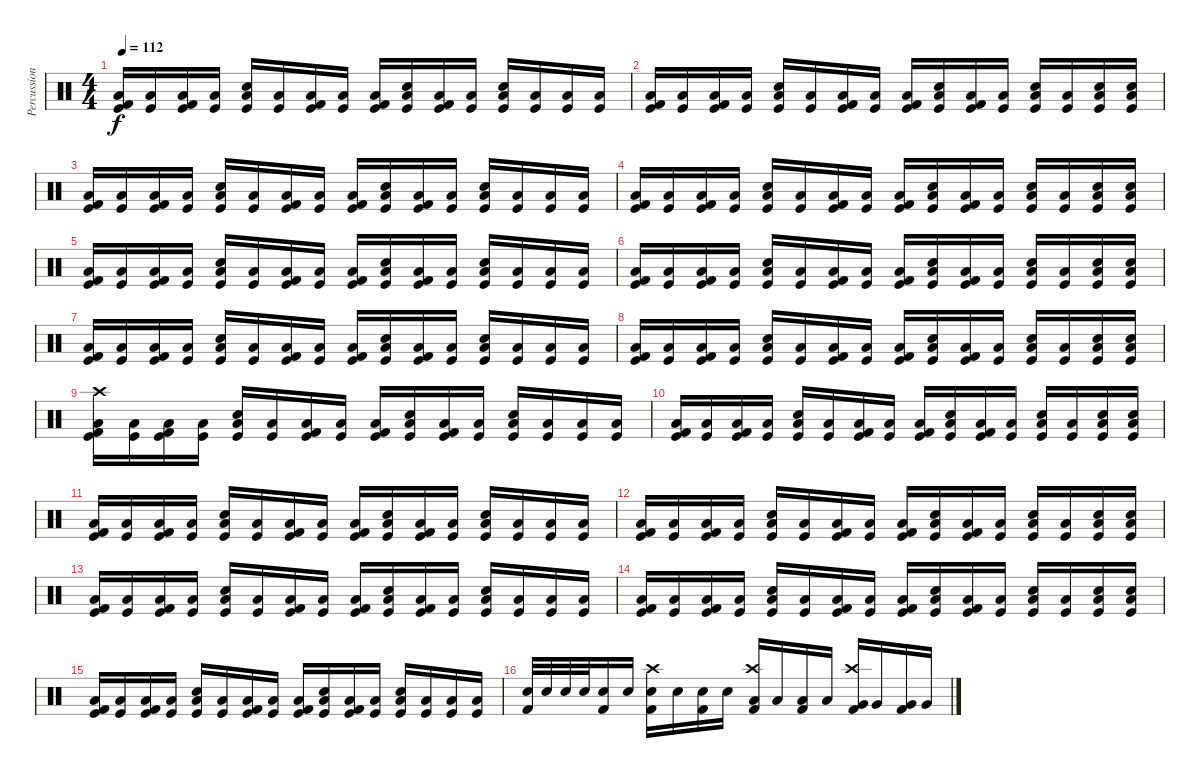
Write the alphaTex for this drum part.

\track ("Percussion" "Percussion") {instrument percussion}
\staff {score}
\articulation defaults
\ts (4 4)
\tempo 112
\clef neutral
\ks c
("Kick (hit) 2" "Kick (hit)" "Low Floor Tom (hit)").16{dy f} ("Kick (hit)" "Low Floor Tom (hit)").16 ("Kick (hit) 2" "Kick (hit)" "Low Floor Tom (hit)").16 ("Kick (hit)" "Low Floor Tom (hit)").16 ("Snare (hit) 2" "Kick (hit)" "Low Floor Tom (hit)").16 ("Kick (hit)" "Low Floor Tom (hit)").16 ("Kick (hit) 2" "Kick (hit)" "Low Floor Tom (hit)").16 ("Kick (hit)" "Low Floor Tom (hit)").16 ("Kick (hit) 2" "Kick (hit)" "Low Floor Tom (hit)").16 ("Snare (hit) 2" "Kick (hit)" "Low Floor Tom (hit)").16 ("Kick (hit) 2" "Kick (hit)" "Low Floor Tom (hit)").16 ("Kick (hit)" "Low Floor Tom (hit)").16 ("Snare (hit) 2" "Kick (hit)" "Low Floor Tom (hit)").16 ("Kick (hit)" "Low Floor Tom (hit)").16 ("Kick (hit)" "Low Floor Tom (hit)").16 ("Kick (hit)" "Low Floor Tom (hit)").16 |
("Kick (hit) 2" "Kick (hit)" "Low Floor Tom (hit)").16 ("Kick (hit)" "Low Floor Tom (hit)").16 ("Kick (hit) 2" "Kick (hit)" "Low Floor Tom (hit)").16 ("Kick (hit)" "Low Floor Tom (hit)").16 ("Snare (hit) 2" "Kick (hit)" "Low Floor Tom (hit)").16 ("Kick (hit)" "Low Floor Tom (hit)").16 ("Kick (hit) 2" "Kick (hit)" "Low Floor Tom (hit)").16 ("Kick (hit)" "Low Floor Tom (hit)").16 ("Kick (hit) 2" "Kick (hit)" "Low Floor Tom (hit)").16 ("Snare (hit) 2" "Kick (hit)" "Low Floor Tom (hit)").16 ("Kick (hit) 2" "Kick (hit)" "Low Floor Tom (hit)").16 ("Kick (hit)" "Low Floor Tom (hit)").16 ("Snare (hit) 2" "Kick (hit)" "Low Floor Tom (hit)").16 ("Kick (hit)" "Low Floor Tom (hit)").16 ("Snare (hit) 2" "Kick (hit)" "Low Floor Tom (hit)").16 ("Snare (hit) 2" "Kick (hit)" "Low Floor Tom (hit)").16 |
("Kick (hit) 2" "Kick (hit)" "Low Floor Tom (hit)").16 ("Kick (hit)" "Low Floor Tom (hit)").16 ("Kick (hit) 2" "Kick (hit)" "Low Floor Tom (hit)").16 ("Kick (hit)" "Low Floor Tom (hit)").16 ("Snare (hit) 2" "Kick (hit)" "Low Floor Tom (hit)").16 ("Kick (hit)" "Low Floor Tom (hit)").16 ("Kick (hit) 2" "Kick (hit)" "Low Floor Tom (hit)").16 ("Kick (hit)" "Low Floor Tom (hit)").16 ("Kick (hit) 2" "Kick (hit)" "Low Floor Tom (hit)").16 ("Snare (hit) 2" "Kick (hit)" "Low Floor Tom (hit)").16 ("Kick (hit) 2" "Kick (hit)" "Low Floor Tom (hit)").16 ("Kick (hit)" "Low Floor Tom (hit)").16 ("Snare (hit) 2" "Kick (hit)" "Low Floor Tom (hit)").16 ("Kick (hit)" "Low Floor Tom (hit)").16 ("Kick (hit)" "Low Floor Tom (hit)").16 ("Kick (hit)" "Low Floor Tom (hit)").16 |
("Kick (hit) 2" "Kick (hit)" "Low Floor Tom (hit)").16 ("Kick (hit)" "Low Floor Tom (hit)").16 ("Kick (hit) 2" "Kick (hit)" "Low Floor Tom (hit)").16 ("Kick (hit)" "Low Floor Tom (hit)").16 ("Snare (hit) 2" "Kick (hit)" "Low Floor Tom (hit)").16 ("Kick (hit)" "Low Floor Tom (hit)").16 ("Kick (hit) 2" "Kick (hit)" "Low Floor Tom (hit)").16 ("Kick (hit)" "Low Floor Tom (hit)").16 ("Kick (hit) 2" "Kick (hit)" "Low Floor Tom (hit)").16 ("Snare (hit) 2" "Kick (hit)" "Low Floor Tom (hit)").16 ("Kick (hit) 2" "Kick (hit)" "Low Floor Tom (hit)").16 ("Kick (hit)" "Low Floor Tom (hit)").16 ("Snare (hit) 2" "Kick (hit)" "Low Floor Tom (hit)").16 ("Kick (hit)" "Low Floor Tom (hit)").16 ("Snare (hit) 2" "Kick (hit)" "Low Floor Tom (hit)").16 ("Snare (hit) 2" "Kick (hit)" "Low Floor Tom (hit)").16 |
("Kick (hit) 2" "Kick (hit)" "Low Floor Tom (hit)").16 ("Kick (hit)" "Low Floor Tom (hit)").16 ("Kick (hit) 2" "Kick (hit)" "Low Floor Tom (hit)").16 ("Kick (hit)" "Low Floor Tom (hit)").16 ("Snare (hit) 2" "Kick (hit)" "Low Floor Tom (hit)").16 ("Kick (hit)" "Low Floor Tom (hit)").16 ("Kick (hit) 2" "Kick (hit)" "Low Floor Tom (hit)").16 ("Kick (hit)" "Low Floor Tom (hit)").16 ("Kick (hit) 2" "Kick (hit)" "Low Floor Tom (hit)").16 ("Snare (hit) 2" "Kick (hit)" "Low Floor Tom (hit)").16 ("Kick (hit) 2" "Kick (hit)" "Low Floor Tom (hit)").16 ("Kick (hit)" "Low Floor Tom (hit)").16 ("Snare (hit) 2" "Kick (hit)" "Low Floor Tom (hit)").16 ("Kick (hit)" "Low Floor Tom (hit)").16 ("Kick (hit)" "Low Floor Tom (hit)").16 ("Kick (hit)" "Low Floor Tom (hit)").16 |
("Kick (hit) 2" "Kick (hit)" "Low Floor Tom (hit)").16 ("Kick (hit)" "Low Floor Tom (hit)").16 ("Kick (hit) 2" "Kick (hit)" "Low Floor Tom (hit)").16 ("Kick (hit)" "Low Floor Tom (hit)").16 ("Snare (hit) 2" "Kick (hit)" "Low Floor Tom (hit)").16 ("Kick (hit)" "Low Floor Tom (hit)").16 ("Kick (hit) 2" "Kick (hit)" "Low Floor Tom (hit)").16 ("Kick (hit)" "Low Floor Tom (hit)").16 ("Kick (hit) 2" "Kick (hit)" "Low Floor Tom (hit)").16 ("Snare (hit) 2" "Kick (hit)" "Low Floor Tom (hit)").16 ("Kick (hit) 2" "Kick (hit)" "Low Floor Tom (hit)").16 ("Kick (hit)" "Low Floor Tom (hit)").16 ("Snare (hit) 2" "Kick (hit)" "Low Floor Tom (hit)").16 ("Kick (hit)" "Low Floor Tom (hit)").16 ("Snare (hit) 2" "Kick (hit)" "Low Floor Tom (hit)").16 ("Snare (hit) 2" "Kick (hit)" "Low Floor Tom (hit)").16 |
("Kick (hit) 2" "Kick (hit)" "Low Floor Tom (hit)").16 ("Kick (hit)" "Low Floor Tom (hit)").16 ("Kick (hit) 2" "Kick (hit)" "Low Floor Tom (hit)").16 ("Kick (hit)" "Low Floor Tom (hit)").16 ("Snare (hit) 2" "Kick (hit)" "Low Floor Tom (hit)").16 ("Kick (hit)" "Low Floor Tom (hit)").16 ("Kick (hit) 2" "Kick (hit)" "Low Floor Tom (hit)").16 ("Kick (hit)" "Low Floor Tom (hit)").16 ("Kick (hit) 2" "Kick (hit)" "Low Floor Tom (hit)").16 ("Snare (hit) 2" "Kick (hit)" "Low Floor Tom (hit)").16 ("Kick (hit) 2" "Kick (hit)" "Low Floor Tom (hit)").16 ("Kick (hit)" "Low Floor Tom (hit)").16 ("Snare (hit) 2" "Kick (hit)" "Low Floor Tom (hit)").16 ("Kick (hit)" "Low Floor Tom (hit)").16 ("Kick (hit)" "Low Floor Tom (hit)").16 ("Kick (hit)" "Low Floor Tom (hit)").16 |
("Kick (hit) 2" "Kick (hit)" "Low Floor Tom (hit)").16 ("Kick (hit)" "Low Floor Tom (hit)").16 ("Kick (hit) 2" "Kick (hit)" "Low Floor Tom (hit)").16 ("Kick (hit)" "Low Floor Tom (hit)").16 ("Snare (hit) 2" "Kick (hit)" "Low Floor Tom (hit)").16 ("Kick (hit)" "Low Floor Tom (hit)").16 ("Kick (hit) 2" "Kick (hit)" "Low Floor Tom (hit)").16 ("Kick (hit)" "Low Floor Tom (hit)").16 ("Kick (hit) 2" "Kick (hit)" "Low Floor Tom (hit)").16 ("Snare (hit) 2" "Kick (hit)" "Low Floor Tom (hit)").16 ("Kick (hit) 2" "Kick (hit)" "Low Floor Tom (hit)").16 ("Kick (hit)" "Low Floor Tom (hit)").16 ("Snare (hit) 2" "Kick (hit)" "Low Floor Tom (hit)").16 ("Kick (hit)" "Low Floor Tom (hit)").16 ("Snare (hit) 2" "Kick (hit)" "Low Floor Tom (hit)").16 ("Snare (hit) 2" "Kick (hit)" "Low Floor Tom (hit)").16 |
("Kick (hit) 2" "Kick (hit)" "Low Floor Tom (hit)" "Crash high (hit)").16 ("Kick (hit)" "Low Floor Tom (hit)").16 ("Kick (hit) 2" "Kick (hit)" "Low Floor Tom (hit)").16 ("Kick (hit)" "Low Floor Tom (hit)").16 ("Snare (hit) 2" "Kick (hit)" "Low Floor Tom (hit)").16 ("Kick (hit)" "Low Floor Tom (hit)").16 ("Kick (hit) 2" "Kick (hit)" "Low Floor Tom (hit)").16 ("Kick (hit)" "Low Floor Tom (hit)").16 ("Kick (hit) 2" "Kick (hit)" "Low Floor Tom (hit)").16 ("Snare (hit) 2" "Kick (hit)" "Low Floor Tom (hit)").16 ("Kick (hit) 2" "Kick (hit)" "Low Floor Tom (hit)").16 ("Kick (hit)" "Low Floor Tom (hit)").16 ("Snare (hit) 2" "Kick (hit)" "Low Floor Tom (hit)").16 ("Kick (hit)" "Low Floor Tom (hit)").16 ("Kick (hit)" "Low Floor Tom (hit)").16 ("Kick (hit)" "Low Floor Tom (hit)").16 |
("Kick (hit) 2" "Kick (hit)" "Low Floor Tom (hit)").16 ("Kick (hit)" "Low Floor Tom (hit)").16 ("Kick (hit) 2" "Kick (hit)" "Low Floor Tom (hit)").16 ("Kick (hit)" "Low Floor Tom (hit)").16 ("Snare (hit) 2" "Kick (hit)" "Low Floor Tom (hit)").16 ("Kick (hit)" "Low Floor Tom (hit)").16 ("Kick (hit) 2" "Kick (hit)" "Low Floor Tom (hit)").16 ("Kick (hit)" "Low Floor Tom (hit)").16 ("Kick (hit) 2" "Kick (hit)" "Low Floor Tom (hit)").16 ("Snare (hit) 2" "Kick (hit)" "Low Floor Tom (hit)").16 ("Kick (hit) 2" "Kick (hit)" "Low Floor Tom (hit)").16 ("Kick (hit)" "Low Floor Tom (hit)").16 ("Snare (hit) 2" "Kick (hit)" "Low Floor Tom (hit)").16 ("Kick (hit)" "Low Floor Tom (hit)").16 ("Snare (hit) 2" "Kick (hit)" "Low Floor Tom (hit)").16 ("Snare (hit) 2" "Kick (hit)" "Low Floor Tom (hit)").16 |
("Kick (hit) 2" "Kick (hit)" "Low Floor Tom (hit)").16 ("Kick (hit)" "Low Floor Tom (hit)").16 ("Kick (hit) 2" "Kick (hit)" "Low Floor Tom (hit)").16 ("Kick (hit)" "Low Floor Tom (hit)").16 ("Snare (hit) 2" "Kick (hit)" "Low Floor Tom (hit)").16 ("Kick (hit)" "Low Floor Tom (hit)").16 ("Kick (hit) 2" "Kick (hit)" "Low Floor Tom (hit)").16 ("Kick (hit)" "Low Floor Tom (hit)").16 ("Kick (hit) 2" "Kick (hit)" "Low Floor Tom (hit)").16 ("Snare (hit) 2" "Kick (hit)" "Low Floor Tom (hit)").16 ("Kick (hit) 2" "Kick (hit)" "Low Floor Tom (hit)").16 ("Kick (hit)" "Low Floor Tom (hit)").16 ("Snare (hit) 2" "Kick (hit)" "Low Floor Tom (hit)").16 ("Kick (hit)" "Low Floor Tom (hit)").16 ("Kick (hit)" "Low Floor Tom (hit)").16 ("Kick (hit)" "Low Floor Tom (hit)").16 |
("Kick (hit) 2" "Kick (hit)" "Low Floor Tom (hit)").16 ("Kick (hit)" "Low Floor Tom (hit)").16 ("Kick (hit) 2" "Kick (hit)" "Low Floor Tom (hit)").16 ("Kick (hit)" "Low Floor Tom (hit)").16 ("Snare (hit) 2" "Kick (hit)" "Low Floor Tom (hit)").16 ("Kick (hit)" "Low Floor Tom (hit)").16 ("Kick (hit) 2" "Kick (hit)" "Low Floor Tom (hit)").16 ("Kick (hit)" "Low Floor Tom (hit)").16 ("Kick (hit) 2" "Kick (hit)" "Low Floor Tom (hit)").16 ("Snare (hit) 2" "Kick (hit)" "Low Floor Tom (hit)").16 ("Kick (hit) 2" "Kick (hit)" "Low Floor Tom (hit)").16 ("Kick (hit)" "Low Floor Tom (hit)").16 ("Snare (hit) 2" "Kick (hit)" "Low Floor Tom (hit)").16 ("Kick (hit)" "Low Floor Tom (hit)").16 ("Snare (hit) 2" "Kick (hit)" "Low Floor Tom (hit)").16 ("Snare (hit) 2" "Kick (hit)" "Low Floor Tom (hit)").16 |
("Kick (hit) 2" "Kick (hit)" "Low Floor Tom (hit)").16 ("Kick (hit)" "Low Floor Tom (hit)").16 ("Kick (hit) 2" "Kick (hit)" "Low Floor Tom (hit)").16 ("Kick (hit)" "Low Floor Tom (hit)").16 ("Snare (hit) 2" "Kick (hit)" "Low Floor Tom (hit)").16 ("Kick (hit)" "Low Floor Tom (hit)").16 ("Kick (hit) 2" "Kick (hit)" "Low Floor Tom (hit)").16 ("Kick (hit)" "Low Floor Tom (hit)").16 ("Kick (hit) 2" "Kick (hit)" "Low Floor Tom (hit)").16 ("Snare (hit) 2" "Kick (hit)" "Low Floor Tom (hit)").16 ("Kick (hit) 2" "Kick (hit)" "Low Floor Tom (hit)").16 ("Kick (hit)" "Low Floor Tom (hit)").16 ("Snare (hit) 2" "Kick (hit)" "Low Floor Tom (hit)").16 ("Kick (hit)" "Low Floor Tom (hit)").16 ("Kick (hit)" "Low Floor Tom (hit)").16 ("Kick (hit)" "Low Floor Tom (hit)").16 |
("Kick (hit) 2" "Kick (hit)" "Low Floor Tom (hit)").16 ("Kick (hit)" "Low Floor Tom (hit)").16 ("Kick (hit) 2" "Kick (hit)" "Low Floor Tom (hit)").16 ("Kick (hit)" "Low Floor Tom (hit)").16 ("Snare (hit) 2" "Kick (hit)" "Low Floor Tom (hit)").16 ("Kick (hit)" "Low Floor Tom (hit)").16 ("Kick (hit) 2" "Kick (hit)" "Low Floor Tom (hit)").16 ("Kick (hit)" "Low Floor Tom (hit)").16 ("Kick (hit) 2" "Kick (hit)" "Low Floor Tom (hit)").16 ("Snare (hit) 2" "Kick (hit)" "Low Floor Tom (hit)").16 ("Kick (hit) 2" "Kick (hit)" "Low Floor Tom (hit)").16 ("Kick (hit)" "Low Floor Tom (hit)").16 ("Snare (hit) 2" "Kick (hit)" "Low Floor Tom (hit)").16 ("Kick (hit)" "Low Floor Tom (hit)").16 ("Snare (hit) 2" "Kick (hit)" "Low Floor Tom (hit)").16 ("Snare (hit) 2" "Kick (hit)" "Low Floor Tom (hit)").16 |
("Kick (hit) 2" "Kick (hit)" "Low Floor Tom (hit)").16 ("Kick (hit)" "Low Floor Tom (hit)").16 ("Kick (hit) 2" "Kick (hit)" "Low Floor Tom (hit)").16 ("Kick (hit)" "Low Floor Tom (hit)").16 ("Snare (hit) 2" "Kick (hit)" "Low Floor Tom (hit)").16 ("Kick (hit)" "Low Floor Tom (hit)").16 ("Kick (hit) 2" "Kick (hit)" "Low Floor Tom (hit)").16 ("Kick (hit)" "Low Floor Tom (hit)").16 ("Kick (hit) 2" "Kick (hit)" "Low Floor Tom (hit)").16 ("Snare (hit) 2" "Kick (hit)" "Low Floor Tom (hit)").16 ("Kick (hit) 2" "Kick (hit)" "Low Floor Tom (hit)").16 ("Kick (hit)" "Low Floor Tom (hit)").16 ("Snare (hit) 2" "Kick (hit)" "Low Floor Tom (hit)").16 ("Kick (hit)" "Low Floor Tom (hit)").16 ("Kick (hit)" "Low Floor Tom (hit)").16 ("Kick (hit)" "Low Floor Tom (hit)").16 |
("Snare (hit) 2" "Kick (hit) 2").32 "Snare (hit) 2".32 "Snare (hit) 2".32 "Snare (hit) 2".32 ("Snare (hit) 2" "Kick (hit) 2").16 "Snare (hit) 2".16 ("Snare (hit) 2" "Crash high (hit)" "Kick (hit) 2").16 "Snare (hit) 2".16 ("Snare (hit) 2" "Kick (hit) 2").16 "Snare (hit) 2".16 ("Low Tom (hit)" "Crash high (hit)" "Kick (hit) 2").16 "Low Tom (hit)".16 ("Low Tom (hit)" "Kick (hit) 2").16 "Low Tom (hit)".16 ("Very Low Tom (hit)" "Crash high (hit)" "Kick (hit) 2").16 "Very Low Tom (hit)".16 ("Very Low Tom (hit)" "Kick (hit) 2").16 "Very Low Tom (hit)".16
